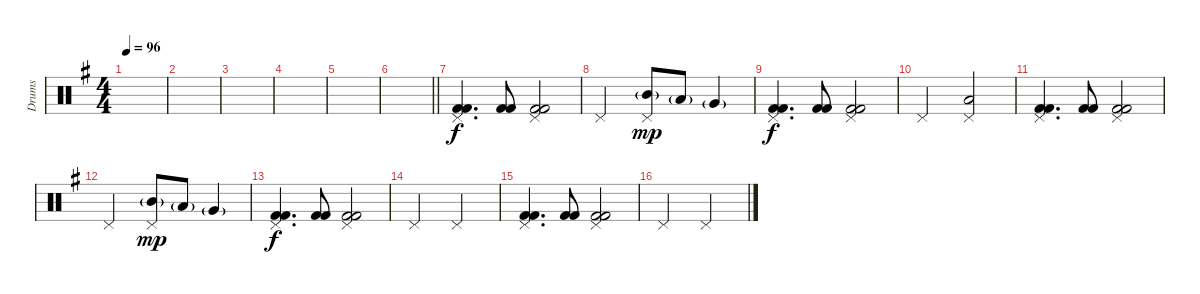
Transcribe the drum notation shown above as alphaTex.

\track ("Drums" "Drums") {instrument percussion}
\staff {score}
\articulation defaults
\ts (4 4)
\tempo 96
\clef neutral
\ks g
|
|
|
|
|
\barLineRight lightlight
|
\section ("" "")
("Kick (hit) 2" "Kick (hit) 2" "Pedal Hi-Hat (hit)").4{d} ("Kick (hit) 2" "Kick (hit) 2").8 ("Kick (hit) 2" "Kick (hit) 2" "Pedal Hi-Hat (hit)").2 |
"Pedal Hi-Hat (hit)".2 ("Mid Tom (hit)"{g} "Pedal Hi-Hat (hit)").8{dy mp} "Low Tom (hit)"{g}.8 "Very Low Tom (hit)"{g}.4 |
("Kick (hit) 2" "Kick (hit) 2" "Pedal Hi-Hat (hit)").4{d dy f} ("Kick (hit) 2" "Kick (hit) 2").8 ("Kick (hit) 2" "Kick (hit) 2" "Pedal Hi-Hat (hit)").2 |
"Pedal Hi-Hat (hit)".2 ("Low Tom (hit)" "Pedal Hi-Hat (hit)").2 |
("Kick (hit) 2" "Kick (hit) 2" "Pedal Hi-Hat (hit)").4{d} ("Kick (hit) 2" "Kick (hit) 2").8 ("Kick (hit) 2" "Kick (hit) 2" "Pedal Hi-Hat (hit)").2 |
"Pedal Hi-Hat (hit)".2 ("Mid Tom (hit)"{g} "Pedal Hi-Hat (hit)").8{dy mp} "Low Tom (hit)"{g}.8 "Very Low Tom (hit)"{g}.4 |
("Kick (hit) 2" "Kick (hit) 2" "Pedal Hi-Hat (hit)").4{d dy f} ("Kick (hit) 2" "Kick (hit) 2").8 ("Kick (hit) 2" "Kick (hit) 2" "Pedal Hi-Hat (hit)").2 |
"Pedal Hi-Hat (hit)".2 "Pedal Hi-Hat (hit)".2 |
("Kick (hit) 2" "Kick (hit) 2" "Pedal Hi-Hat (hit)").4{d} ("Kick (hit) 2" "Kick (hit) 2").8 ("Kick (hit) 2" "Kick (hit) 2" "Pedal Hi-Hat (hit)").2 |
"Pedal Hi-Hat (hit)".2 "Pedal Hi-Hat (hit)".2
